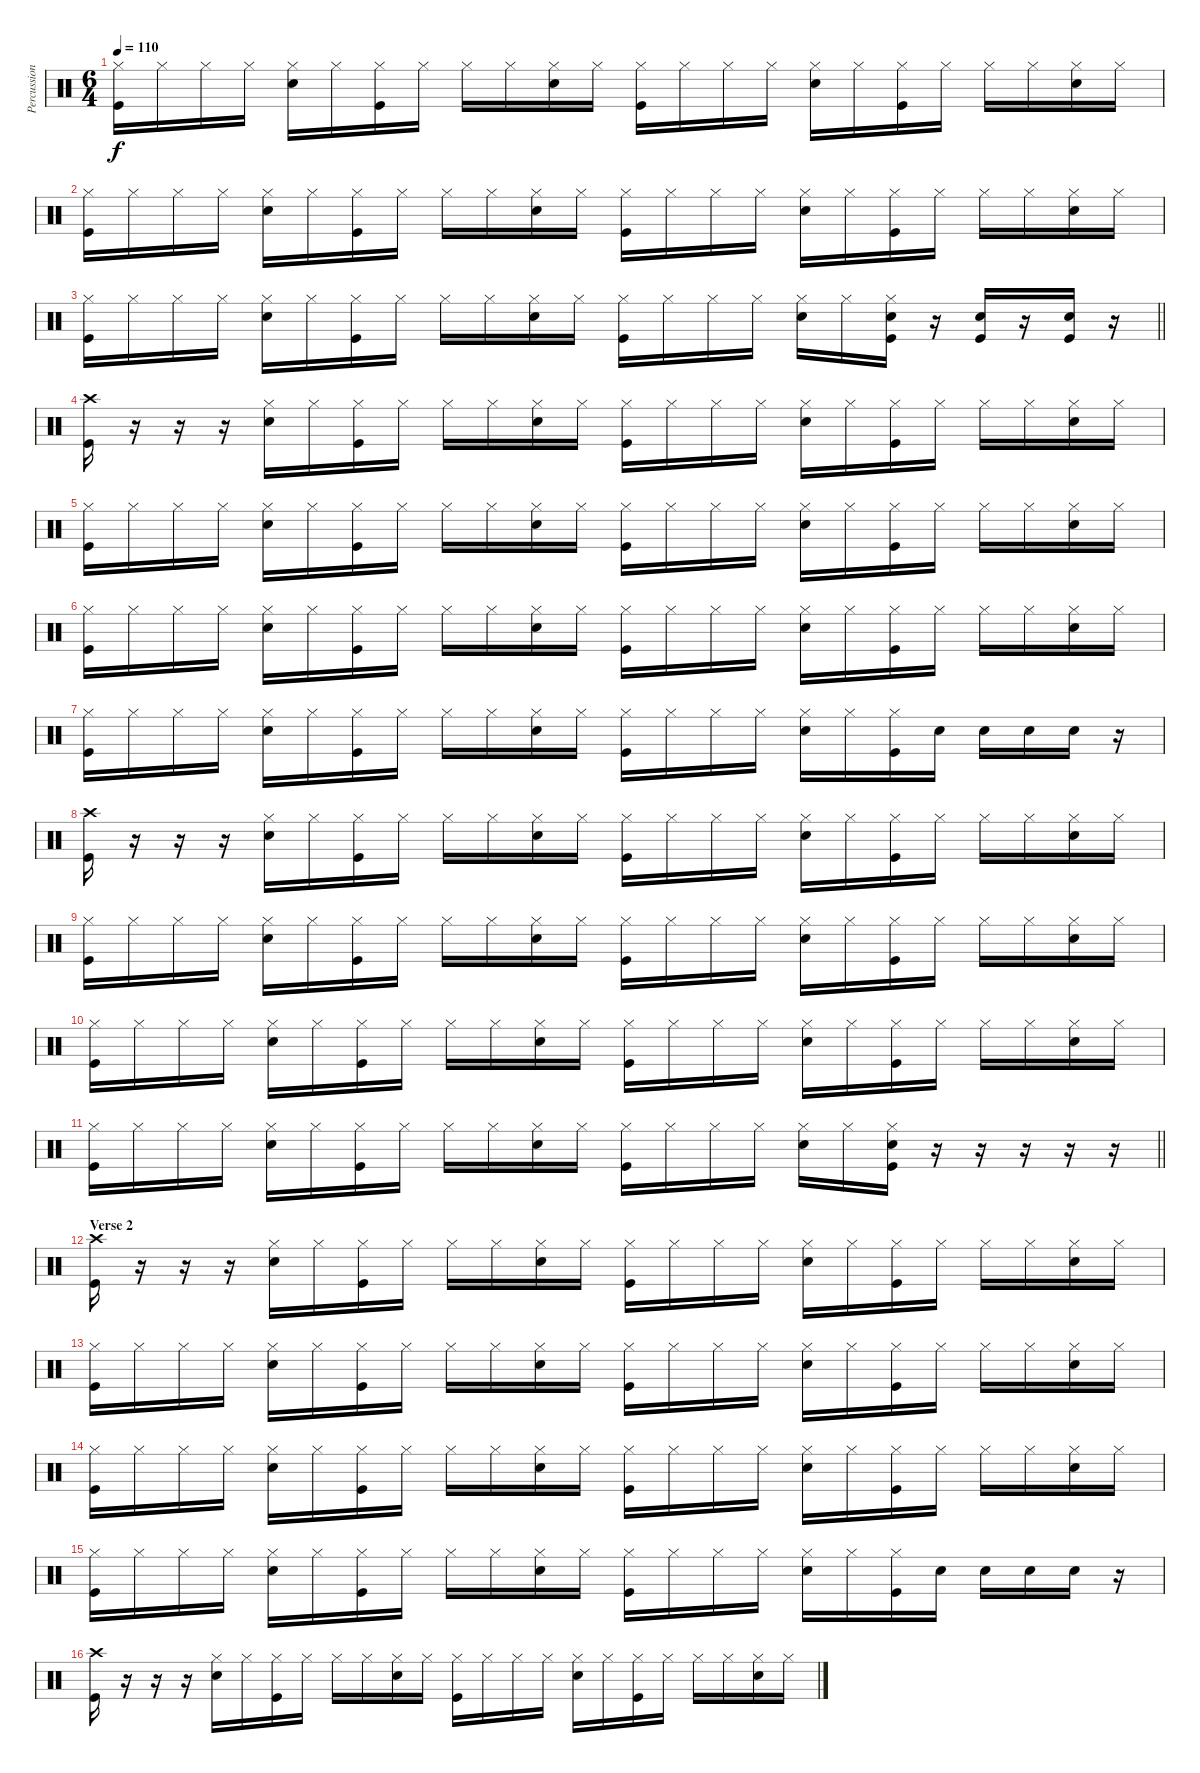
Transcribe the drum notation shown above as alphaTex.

\track ("Percussion 2" "Percussion") {instrument percussion}
\staff {score}
\articulation defaults
\ts (6 4)
\tempo 110
\clef neutral
\ks c
("Hi-Hat (closed)" "Kick (hit)").16{dy f} "Hi-Hat (closed)".16 "Hi-Hat (closed)".16 "Hi-Hat (closed)".16 ("Hi-Hat (closed)" "Snare (hit) 2").16 "Hi-Hat (closed)".16 ("Hi-Hat (closed)" "Kick (hit)").16 "Hi-Hat (closed)".16 "Hi-Hat (closed)".16 "Hi-Hat (closed)".16 ("Hi-Hat (closed)" "Snare (hit) 2").16 "Hi-Hat (closed)".16 ("Hi-Hat (closed)" "Kick (hit)").16 "Hi-Hat (closed)".16 "Hi-Hat (closed)".16 "Hi-Hat (closed)".16 ("Hi-Hat (closed)" "Snare (hit) 2").16 "Hi-Hat (closed)".16 ("Hi-Hat (closed)" "Kick (hit)").16 "Hi-Hat (closed)".16 "Hi-Hat (closed)".16 "Hi-Hat (closed)".16 ("Hi-Hat (closed)" "Snare (hit) 2").16 "Hi-Hat (closed)".16 |
("Hi-Hat (closed)" "Kick (hit)").16 "Hi-Hat (closed)".16 "Hi-Hat (closed)".16 "Hi-Hat (closed)".16 ("Hi-Hat (closed)" "Snare (hit) 2").16 "Hi-Hat (closed)".16 ("Hi-Hat (closed)" "Kick (hit)").16 "Hi-Hat (closed)".16 "Hi-Hat (closed)".16 "Hi-Hat (closed)".16 ("Hi-Hat (closed)" "Snare (hit) 2").16 "Hi-Hat (closed)".16 ("Hi-Hat (closed)" "Kick (hit)").16 "Hi-Hat (closed)".16 "Hi-Hat (closed)".16 "Hi-Hat (closed)".16 ("Hi-Hat (closed)" "Snare (hit) 2").16 "Hi-Hat (closed)".16 ("Hi-Hat (closed)" "Kick (hit)").16 "Hi-Hat (closed)".16 "Hi-Hat (closed)".16 "Hi-Hat (closed)".16 ("Hi-Hat (closed)" "Snare (hit) 2").16 "Hi-Hat (closed)".16 |
\barLineRight lightlight
("Hi-Hat (closed)" "Kick (hit)").16 "Hi-Hat (closed)".16 "Hi-Hat (closed)".16 "Hi-Hat (closed)".16 ("Hi-Hat (closed)" "Snare (hit) 2").16 "Hi-Hat (closed)".16 ("Hi-Hat (closed)" "Kick (hit)").16 "Hi-Hat (closed)".16 "Hi-Hat (closed)".16 "Hi-Hat (closed)".16 ("Hi-Hat (closed)" "Snare (hit) 2").16 "Hi-Hat (closed)".16 ("Hi-Hat (closed)" "Kick (hit)").16 "Hi-Hat (closed)".16 "Hi-Hat (closed)".16 "Hi-Hat (closed)".16 ("Hi-Hat (closed)" "Snare (hit) 2").16 "Hi-Hat (closed)".16 ("Hi-Hat (closed)" "Snare (hit) 2" "Kick (hit)").16 r.16 ("Snare (hit) 2" "Kick (hit)").16 r.16 ("Snare (hit) 2" "Kick (hit)").16 r.16 |
("Crash high (hit)" "Kick (hit)").16 r.16 r.16 r.16 ("Hi-Hat (closed)" "Snare (hit) 2").16 "Hi-Hat (closed)".16 ("Hi-Hat (closed)" "Kick (hit)").16 "Hi-Hat (closed)".16 "Hi-Hat (closed)".16 "Hi-Hat (closed)".16 ("Hi-Hat (closed)" "Snare (hit) 2").16 "Hi-Hat (closed)".16 ("Hi-Hat (closed)" "Kick (hit)").16 "Hi-Hat (closed)".16 "Hi-Hat (closed)".16 "Hi-Hat (closed)".16 ("Hi-Hat (closed)" "Snare (hit) 2").16 "Hi-Hat (closed)".16 ("Hi-Hat (closed)" "Kick (hit)").16 "Hi-Hat (closed)".16 "Hi-Hat (closed)".16 "Hi-Hat (closed)".16 ("Hi-Hat (closed)" "Snare (hit) 2").16 "Hi-Hat (closed)".16 |
("Hi-Hat (closed)" "Kick (hit)").16 "Hi-Hat (closed)".16 "Hi-Hat (closed)".16 "Hi-Hat (closed)".16 ("Hi-Hat (closed)" "Snare (hit) 2").16 "Hi-Hat (closed)".16 ("Hi-Hat (closed)" "Kick (hit)").16 "Hi-Hat (closed)".16 "Hi-Hat (closed)".16 "Hi-Hat (closed)".16 ("Hi-Hat (closed)" "Snare (hit) 2").16 "Hi-Hat (closed)".16 ("Hi-Hat (closed)" "Kick (hit)").16 "Hi-Hat (closed)".16 "Hi-Hat (closed)".16 "Hi-Hat (closed)".16 ("Hi-Hat (closed)" "Snare (hit) 2").16 "Hi-Hat (closed)".16 ("Hi-Hat (closed)" "Kick (hit)").16 "Hi-Hat (closed)".16 "Hi-Hat (closed)".16 "Hi-Hat (closed)".16 ("Hi-Hat (closed)" "Snare (hit) 2").16 "Hi-Hat (closed)".16 |
("Hi-Hat (closed)" "Kick (hit)").16 "Hi-Hat (closed)".16 "Hi-Hat (closed)".16 "Hi-Hat (closed)".16 ("Hi-Hat (closed)" "Snare (hit) 2").16 "Hi-Hat (closed)".16 ("Hi-Hat (closed)" "Kick (hit)").16 "Hi-Hat (closed)".16 "Hi-Hat (closed)".16 "Hi-Hat (closed)".16 ("Hi-Hat (closed)" "Snare (hit) 2").16 "Hi-Hat (closed)".16 ("Hi-Hat (closed)" "Kick (hit)").16 "Hi-Hat (closed)".16 "Hi-Hat (closed)".16 "Hi-Hat (closed)".16 ("Hi-Hat (closed)" "Snare (hit) 2").16 "Hi-Hat (closed)".16 ("Hi-Hat (closed)" "Kick (hit)").16 "Hi-Hat (closed)".16 "Hi-Hat (closed)".16 "Hi-Hat (closed)".16 ("Hi-Hat (closed)" "Snare (hit) 2").16 "Hi-Hat (closed)".16 |
("Hi-Hat (closed)" "Kick (hit)").16 "Hi-Hat (closed)".16 "Hi-Hat (closed)".16 "Hi-Hat (closed)".16 ("Hi-Hat (closed)" "Snare (hit) 2").16 "Hi-Hat (closed)".16 ("Hi-Hat (closed)" "Kick (hit)").16 "Hi-Hat (closed)".16 "Hi-Hat (closed)".16 "Hi-Hat (closed)".16 ("Hi-Hat (closed)" "Snare (hit) 2").16 "Hi-Hat (closed)".16 ("Hi-Hat (closed)" "Kick (hit)").16 "Hi-Hat (closed)".16 "Hi-Hat (closed)".16 "Hi-Hat (closed)".16 ("Hi-Hat (closed)" "Snare (hit) 2").16 "Hi-Hat (closed)".16 ("Hi-Hat (closed)" "Kick (hit)").16 "Snare (hit) 2".16 "Snare (hit) 2".16 "Snare (hit) 2".16 "Snare (hit) 2".16 r.16 |
("Crash high (hit)" "Kick (hit)").16 r.16 r.16 r.16 ("Hi-Hat (closed)" "Snare (hit) 2").16 "Hi-Hat (closed)".16 ("Hi-Hat (closed)" "Kick (hit)").16 "Hi-Hat (closed)".16 "Hi-Hat (closed)".16 "Hi-Hat (closed)".16 ("Hi-Hat (closed)" "Snare (hit) 2").16 "Hi-Hat (closed)".16 ("Hi-Hat (closed)" "Kick (hit)").16 "Hi-Hat (closed)".16 "Hi-Hat (closed)".16 "Hi-Hat (closed)".16 ("Hi-Hat (closed)" "Snare (hit) 2").16 "Hi-Hat (closed)".16 ("Hi-Hat (closed)" "Kick (hit)").16 "Hi-Hat (closed)".16 "Hi-Hat (closed)".16 "Hi-Hat (closed)".16 ("Hi-Hat (closed)" "Snare (hit) 2").16 "Hi-Hat (closed)".16 |
("Hi-Hat (closed)" "Kick (hit)").16 "Hi-Hat (closed)".16 "Hi-Hat (closed)".16 "Hi-Hat (closed)".16 ("Hi-Hat (closed)" "Snare (hit) 2").16 "Hi-Hat (closed)".16 ("Hi-Hat (closed)" "Kick (hit)").16 "Hi-Hat (closed)".16 "Hi-Hat (closed)".16 "Hi-Hat (closed)".16 ("Hi-Hat (closed)" "Snare (hit) 2").16 "Hi-Hat (closed)".16 ("Hi-Hat (closed)" "Kick (hit)").16 "Hi-Hat (closed)".16 "Hi-Hat (closed)".16 "Hi-Hat (closed)".16 ("Hi-Hat (closed)" "Snare (hit) 2").16 "Hi-Hat (closed)".16 ("Hi-Hat (closed)" "Kick (hit)").16 "Hi-Hat (closed)".16 "Hi-Hat (closed)".16 "Hi-Hat (closed)".16 ("Hi-Hat (closed)" "Snare (hit) 2").16 "Hi-Hat (closed)".16 |
("Hi-Hat (closed)" "Kick (hit)").16 "Hi-Hat (closed)".16 "Hi-Hat (closed)".16 "Hi-Hat (closed)".16 ("Hi-Hat (closed)" "Snare (hit) 2").16 "Hi-Hat (closed)".16 ("Hi-Hat (closed)" "Kick (hit)").16 "Hi-Hat (closed)".16 "Hi-Hat (closed)".16 "Hi-Hat (closed)".16 ("Hi-Hat (closed)" "Snare (hit) 2").16 "Hi-Hat (closed)".16 ("Hi-Hat (closed)" "Kick (hit)").16 "Hi-Hat (closed)".16 "Hi-Hat (closed)".16 "Hi-Hat (closed)".16 ("Hi-Hat (closed)" "Snare (hit) 2").16 "Hi-Hat (closed)".16 ("Hi-Hat (closed)" "Kick (hit)").16 "Hi-Hat (closed)".16 "Hi-Hat (closed)".16 "Hi-Hat (closed)".16 ("Hi-Hat (closed)" "Snare (hit) 2").16 "Hi-Hat (closed)".16 |
\barLineRight lightlight
("Hi-Hat (closed)" "Kick (hit)").16 "Hi-Hat (closed)".16 "Hi-Hat (closed)".16 "Hi-Hat (closed)".16 ("Hi-Hat (closed)" "Snare (hit) 2").16 "Hi-Hat (closed)".16 ("Hi-Hat (closed)" "Kick (hit)").16 "Hi-Hat (closed)".16 "Hi-Hat (closed)".16 "Hi-Hat (closed)".16 ("Hi-Hat (closed)" "Snare (hit) 2").16 "Hi-Hat (closed)".16 ("Hi-Hat (closed)" "Kick (hit)").16 "Hi-Hat (closed)".16 "Hi-Hat (closed)".16 "Hi-Hat (closed)".16 ("Hi-Hat (closed)" "Snare (hit) 2").16 "Hi-Hat (closed)".16 ("Hi-Hat (closed)" "Snare (hit) 2" "Kick (hit)").16 r.16 r.16 r.16 r.16 r.16 |
\section ("" "Verse 2")
("Crash high (hit)" "Kick (hit)").16 r.16 r.16 r.16 ("Hi-Hat (closed)" "Snare (hit) 2").16 "Hi-Hat (closed)".16 ("Hi-Hat (closed)" "Kick (hit)").16 "Hi-Hat (closed)".16 "Hi-Hat (closed)".16 "Hi-Hat (closed)".16 ("Hi-Hat (closed)" "Snare (hit) 2").16 "Hi-Hat (closed)".16 ("Hi-Hat (closed)" "Kick (hit)").16 "Hi-Hat (closed)".16 "Hi-Hat (closed)".16 "Hi-Hat (closed)".16 ("Hi-Hat (closed)" "Snare (hit) 2").16 "Hi-Hat (closed)".16 ("Hi-Hat (closed)" "Kick (hit)").16 "Hi-Hat (closed)".16 "Hi-Hat (closed)".16 "Hi-Hat (closed)".16 ("Hi-Hat (closed)" "Snare (hit) 2").16 "Hi-Hat (closed)".16 |
("Hi-Hat (closed)" "Kick (hit)").16 "Hi-Hat (closed)".16 "Hi-Hat (closed)".16 "Hi-Hat (closed)".16 ("Hi-Hat (closed)" "Snare (hit) 2").16 "Hi-Hat (closed)".16 ("Hi-Hat (closed)" "Kick (hit)").16 "Hi-Hat (closed)".16 "Hi-Hat (closed)".16 "Hi-Hat (closed)".16 ("Hi-Hat (closed)" "Snare (hit) 2").16 "Hi-Hat (closed)".16 ("Hi-Hat (closed)" "Kick (hit)").16 "Hi-Hat (closed)".16 "Hi-Hat (closed)".16 "Hi-Hat (closed)".16 ("Hi-Hat (closed)" "Snare (hit) 2").16 "Hi-Hat (closed)".16 ("Hi-Hat (closed)" "Kick (hit)").16 "Hi-Hat (closed)".16 "Hi-Hat (closed)".16 "Hi-Hat (closed)".16 ("Hi-Hat (closed)" "Snare (hit) 2").16 "Hi-Hat (closed)".16 |
("Hi-Hat (closed)" "Kick (hit)").16 "Hi-Hat (closed)".16 "Hi-Hat (closed)".16 "Hi-Hat (closed)".16 ("Hi-Hat (closed)" "Snare (hit) 2").16 "Hi-Hat (closed)".16 ("Hi-Hat (closed)" "Kick (hit)").16 "Hi-Hat (closed)".16 "Hi-Hat (closed)".16 "Hi-Hat (closed)".16 ("Hi-Hat (closed)" "Snare (hit) 2").16 "Hi-Hat (closed)".16 ("Hi-Hat (closed)" "Kick (hit)").16 "Hi-Hat (closed)".16 "Hi-Hat (closed)".16 "Hi-Hat (closed)".16 ("Hi-Hat (closed)" "Snare (hit) 2").16 "Hi-Hat (closed)".16 ("Hi-Hat (closed)" "Kick (hit)").16 "Hi-Hat (closed)".16 "Hi-Hat (closed)".16 "Hi-Hat (closed)".16 ("Hi-Hat (closed)" "Snare (hit) 2").16 "Hi-Hat (closed)".16 |
("Hi-Hat (closed)" "Kick (hit)").16 "Hi-Hat (closed)".16 "Hi-Hat (closed)".16 "Hi-Hat (closed)".16 ("Hi-Hat (closed)" "Snare (hit) 2").16 "Hi-Hat (closed)".16 ("Hi-Hat (closed)" "Kick (hit)").16 "Hi-Hat (closed)".16 "Hi-Hat (closed)".16 "Hi-Hat (closed)".16 ("Hi-Hat (closed)" "Snare (hit) 2").16 "Hi-Hat (closed)".16 ("Hi-Hat (closed)" "Kick (hit)").16 "Hi-Hat (closed)".16 "Hi-Hat (closed)".16 "Hi-Hat (closed)".16 ("Hi-Hat (closed)" "Snare (hit) 2").16 "Hi-Hat (closed)".16 ("Hi-Hat (closed)" "Kick (hit)").16 "Snare (hit) 2".16 "Snare (hit) 2".16 "Snare (hit) 2".16 "Snare (hit) 2".16 r.16 |
("Crash high (hit)" "Kick (hit)").16 r.16 r.16 r.16 ("Hi-Hat (closed)" "Snare (hit) 2").16 "Hi-Hat (closed)".16 ("Hi-Hat (closed)" "Kick (hit)").16 "Hi-Hat (closed)".16 "Hi-Hat (closed)".16 "Hi-Hat (closed)".16 ("Hi-Hat (closed)" "Snare (hit) 2").16 "Hi-Hat (closed)".16 ("Hi-Hat (closed)" "Kick (hit)").16 "Hi-Hat (closed)".16 "Hi-Hat (closed)".16 "Hi-Hat (closed)".16 ("Hi-Hat (closed)" "Snare (hit) 2").16 "Hi-Hat (closed)".16 ("Hi-Hat (closed)" "Kick (hit)").16 "Hi-Hat (closed)".16 "Hi-Hat (closed)".16 "Hi-Hat (closed)".16 ("Hi-Hat (closed)" "Snare (hit) 2").16 "Hi-Hat (closed)".16
